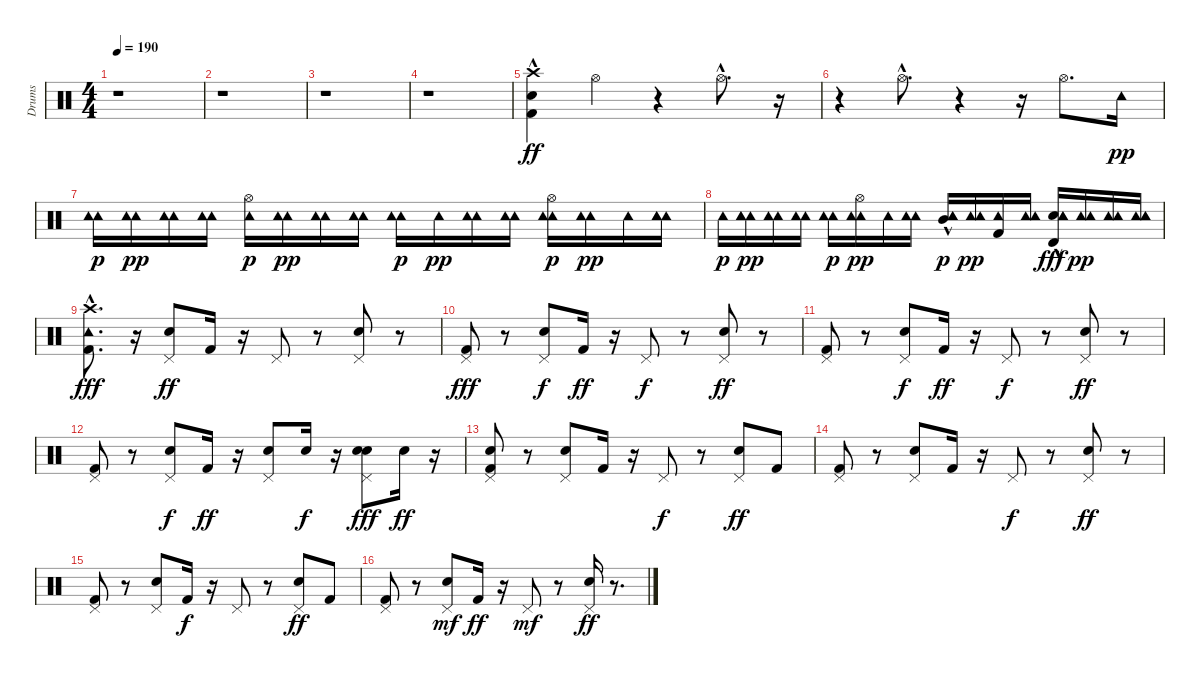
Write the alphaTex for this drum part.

\track ("Drums" "Drums") {instrument percussion}
\staff {score}
\articulation defaults
\ts (4 4)
\tempo 190
\clef neutral
\ks c
r.1{dy ff} |
r.1 |
r.1 |
r.1 |
("Crash high (hit)"{hac} "Kick (hit) 2" "Snare (hit) 2").4 "Hi-Hat (open)".4 r.4 "Hi-Hat (open)"{hac}.8{d} r.16 |
r.4 "Hi-Hat (open)"{hac}.8{d} r.4 r.16 "Hi-Hat (open)".8{d} "Tambourine (hit)".16{dy pp} |
("Tambourine (hit)" "Tambourine (hit)").16{dy p} ("Tambourine (hit)" "Tambourine (hit)").16{dy pp} ("Tambourine (hit)" "Tambourine (hit)").16 ("Tambourine (hit)" "Tambourine (hit)").16 ("Hi-Hat (open)" "Tambourine (hit)").16{dy p} ("Tambourine (hit)" "Tambourine (hit)").16{dy pp} ("Tambourine (hit)" "Tambourine (hit)").16 ("Tambourine (hit)" "Tambourine (hit)").16 ("Tambourine (hit)" "Tambourine (hit)").16{dy p} "Tambourine (hit)".16{dy pp} ("Tambourine (hit)" "Tambourine (hit)").16 ("Tambourine (hit)" "Tambourine (hit)").16 ("Hi-Hat (open)" "Tambourine (hit)" "Tambourine (hit)").16{dy p} ("Tambourine (hit)" "Tambourine (hit)").16{dy pp} "Tambourine (hit)".16 ("Tambourine (hit)" "Tambourine (hit)" "Tambourine (hit)").16 |
"Tambourine (hit)".16{dy p} ("Tambourine (hit)" "Tambourine (hit)" "Tambourine (hit)").16{dy pp} ("Tambourine (hit)" "Tambourine (hit)").16 ("Tambourine (hit)" "Tambourine (hit)").16 ("Tambourine (hit)" "Tambourine (hit)").16{dy p} ("Hi-Hat (open)" "Tambourine (hit)" "Tambourine (hit)").16{dy pp} "Tambourine (hit)".16 ("Tambourine (hit)" "Tambourine (hit)").16 ("Mid Tom (hit)"{hac} "Tambourine (hit)" "Tambourine (hit)").16{dy p} ("Tambourine (hit)" "Tambourine (hit)").16{dy pp} ("Kick (hit) 2" "Tambourine (hit)").16 ("Tambourine (hit)" "Tambourine (hit)").16 ("Snare (hit) 2"{hac} "Tambourine (hit)" "Tambourine (hit)" "Timbale high (hit)"{hac}).16{dy fff} ("Tambourine (hit)" "Tambourine (hit)").16{dy pp} ("Tambourine (hit)" "Tambourine (hit)").16 ("Tambourine (hit)" "Tambourine (hit)" "Tambourine (hit)").16 |
("Crash high (hit)" "Tambourine (hit)" "Kick (hit) 2"{hac}).8{d dy fff} r.16 ("Snare (hit) 2" "Pedal Hi-Hat (hit)").8{dy ff} "Kick (hit) 2".16 r.16 "Pedal Hi-Hat (hit)".8 r.8 ("Snare (hit) 2" "Pedal Hi-Hat (hit)").8 r.8 |
("Kick (hit) 2" "Pedal Hi-Hat (hit)").8{dy fff} r.8 ("Snare (hit) 2" "Pedal Hi-Hat (hit)").8{dy f} "Kick (hit) 2".16{dy ff} r.16 "Pedal Hi-Hat (hit)".8{dy f} r.8 ("Snare (hit) 2" "Pedal Hi-Hat (hit)").8{dy ff} r.8 |
("Kick (hit) 2" "Pedal Hi-Hat (hit)").8 r.8 ("Snare (hit) 2" "Pedal Hi-Hat (hit)").8{dy f} "Kick (hit) 2".16{dy ff} r.16 "Pedal Hi-Hat (hit)".8{dy f} r.8 ("Snare (hit) 2" "Pedal Hi-Hat (hit)").8{dy ff} r.8 |
("Kick (hit) 2" "Pedal Hi-Hat (hit)").8 r.8 ("Snare (hit) 2" "Pedal Hi-Hat (hit)").8{dy f} "Kick (hit) 2".16{dy ff} r.16 ("Hand Clap (hit)" "Pedal Hi-Hat (hit)").8 "Hand Clap (hit)".16{dy f} r.16 ("Hand Clap (hit)" "Snare (hit) 2" "Pedal Hi-Hat (hit)").8{dy fff} "Hand Clap (hit)".16{dy ff} r.16 |
("Pedal Hi-Hat (hit)" "Hand Clap (hit)" "Kick (hit) 2").8 r.8 ("Pedal Hi-Hat (hit)" "Snare (hit) 2").8 "Kick (hit) 2".16 r.16 "Pedal Hi-Hat (hit)".8{dy f} r.8 ("Snare (hit) 2" "Pedal Hi-Hat (hit)").8{dy ff} "Kick (hit) 2".8 |
("Kick (hit) 2" "Pedal Hi-Hat (hit)").8 r.8 ("Snare (hit) 2" "Pedal Hi-Hat (hit)").8 "Kick (hit) 2".16 r.16 "Pedal Hi-Hat (hit)".8{dy f} r.8 ("Pedal Hi-Hat (hit)" "Snare (hit) 2").8{dy ff} r.8 |
("Pedal Hi-Hat (hit)" "Kick (hit) 2").8 r.8 ("Snare (hit) 2" "Pedal Hi-Hat (hit)").8 "Kick (hit) 2".16{dy f} r.16 "Pedal Hi-Hat (hit)".8 r.8 ("Snare (hit) 2" "Pedal Hi-Hat (hit)").8{dy ff} "Kick (hit) 2".8 |
("Kick (hit) 2" "Pedal Hi-Hat (hit)").8 r.8 ("Snare (hit) 2" "Pedal Hi-Hat (hit)").8{dy mf} "Kick (hit) 2".16{dy ff} r.16 "Pedal Hi-Hat (hit)".8{dy mf} r.8 ("Pedal Hi-Hat (hit)" "Snare (hit) 2").16{dy ff} r.8{d}
